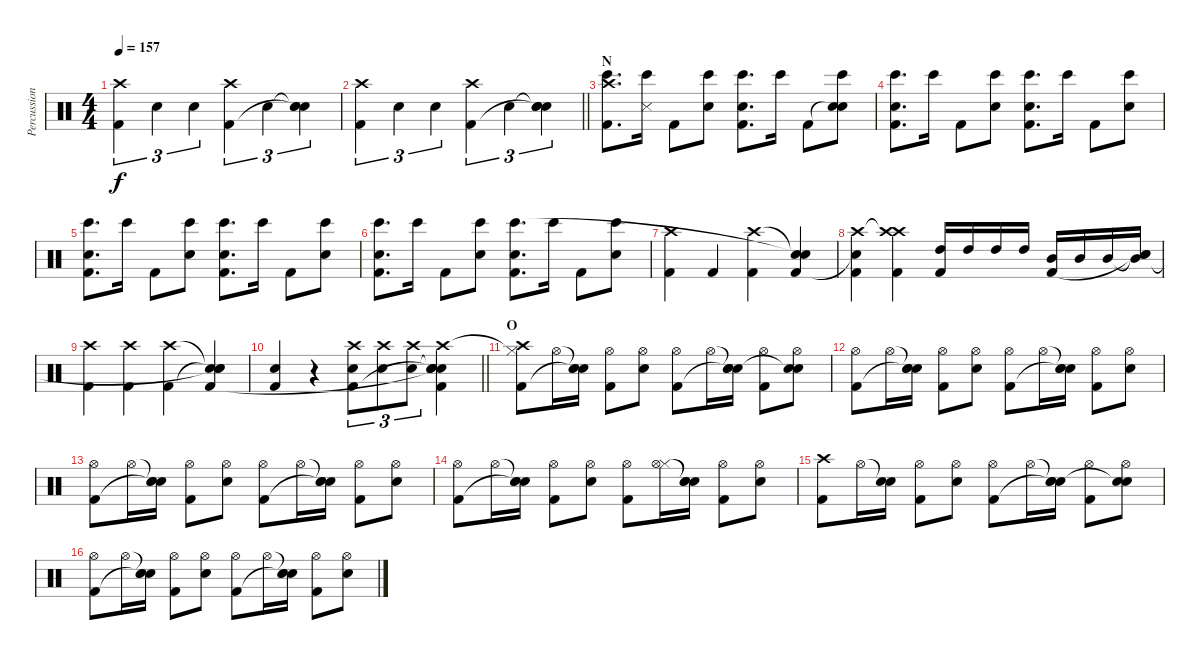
\track ("Percussion" "Percussion") {instrument percussion}
\staff {score}
\articulation defaults
\ts (4 4)
\tempo 157
\clef neutral
\ks c
("Crash high (hit)" "Kick (hit) 2").4{tu (3 2) dy f} "Electric Snare (hit)".4{tu (3 2)} "Electric Snare (hit)".4{tu (3 2)} ("Crash high (hit)" "Kick (hit) 2").4{tu (3 2)} "Electric Snare (hit)".4{tu (3 2)} ("Snare (hit)"{t} "Snare (hit)"{t} "Electric Snare (hit)").4{tu (3 2)} |
\barLineRight lightlight
("Crash high (hit)" "Kick (hit) 2").4{tu (3 2)} "Electric Snare (hit)".4{tu (3 2)} "Electric Snare (hit)".4{tu (3 2)} ("Crash high (hit)" "Kick (hit) 2").4{tu (3 2)} "Electric Snare (hit)".4{tu (3 2)} ("Snare (hit)"{t} "Snare (hit)"{t} "Electric Snare (hit)").4{tu (3 2)} |
\section ("" "N")
("Crash high (hit)" "Kick (hit) 2" "Bongo High (hit)").8{d} ("Snare (side stick) 3" "Bongo High (hit)").16 "Kick (hit) 2".8 ("Electric Snare (hit)" "Bongo High (hit)").8 ("Electric Snare (hit)" "Kick (hit) 2" "Bongo High (hit)").8{d} "Bongo High (hit)".16 "Kick (hit) 2".8 ("Snare (hit)"{t} "Electric Snare (hit)" "Bongo High (hit)").8 |
("Electric Snare (hit)" "Kick (hit) 2" "Bongo High (hit)").8{d} "Bongo High (hit)".16 "Kick (hit) 2".8 ("Electric Snare (hit)" "Bongo High (hit)").8 ("Electric Snare (hit)" "Kick (hit) 2" "Bongo High (hit)").8{d} "Bongo High (hit)".16 "Kick (hit) 2".8 ("Electric Snare (hit)" "Bongo High (hit)").8 |
("Electric Snare (hit)" "Kick (hit) 2" "Bongo High (hit)").8{d} "Bongo High (hit)".16 "Kick (hit) 2".8 ("Electric Snare (hit)" "Bongo High (hit)").8 ("Electric Snare (hit)" "Kick (hit) 2" "Bongo High (hit)").8{d} "Bongo High (hit)".16 "Kick (hit) 2".8 ("Electric Snare (hit)" "Bongo High (hit)").8 |
("Electric Snare (hit)" "Kick (hit) 2" "Bongo High (hit)").8{d} "Bongo High (hit)".16 "Kick (hit) 2".8 ("Electric Snare (hit)" "Bongo High (hit)").8 ("Electric Snare (hit)" "Kick (hit) 2" "Bongo High (hit)").8{d} "Bongo High (hit)".16 "Kick (hit) 2".8 ("Electric Snare (hit)" "Bongo High (hit)").8 |
("Kick (hit) 2" "Crash high (hit)").4 "Kick (hit) 2".4 ("Crash high (hit)" "Kick (hit) 2").4 ("Snare (hit)"{t} "Kick (hit) 2" "Snare (hit)"{t}).4 |
("Crash high (hit)" "Snare (hit)"{t} "Kick (hit) 2").4 ("Crash high (hit)"{t} "Crash high (hit)" "Kick (hit) 2").4 ("High Tom (hit)" "Kick (hit) 2").16 "High Tom (hit)".16 "High Tom (hit)".16 "High Tom (hit)".16 ("Mid Tom (hit)" "Kick (hit) 2").16 "Mid Tom (hit)".16 "Mid Tom (hit)".16 ("Snare (hit)"{t} "Snare (hit)"{t} "Mid Tom (hit)").16 |
("Crash high (hit)" "Kick (hit) 2").4 ("Crash high (hit)" "Kick (hit) 2").4 ("Crash high (hit)" "Kick (hit) 2").4 ("Snare (hit)"{t} "Snare (hit)"{t} "Snare (hit)"{t} "Kick (hit) 2").4 |
\barLineRight lightlight
("Electric Snare (hit)" "Kick (hit) 2").4 r.4 ("Crash high (hit)" "Electric Snare (hit)" "Kick (hit) 2").8{tu (3 2)} ("Crash high (hit)" "Electric Snare (hit)").8{tu (3 2)} ("Crash high (hit)" "Electric Snare (hit)").8{tu (3 2)} ("Crash high (hit)" "Snare (hit)"{t} "Snare (hit)"{t} "Snare (hit)"{t} "Electric Snare (hit)" "Kick (hit) 2").4 |
\section ("" "O")
("Hi-Hat (closed)"{t} "Kick (hit) 2" "Crash high (hit)").8 "Hi-Hat (open)".16 ("Snare (hit)"{t} "Snare (hit)"{t} "Electric Snare (hit)").16 ("Hi-Hat (open)" "Kick (hit) 2").8 ("Hi-Hat (open)" "Electric Snare (hit)").8 ("Hi-Hat (open)" "Kick (hit) 2").8 "Hi-Hat (open)".16 ("Snare (hit)"{t} "Snare (hit)"{t} "Electric Snare (hit)").16 ("Hi-Hat (open)" "Kick (hit) 2").8 ("Hi-Hat (open)" "Electric Snare (hit)" "Snare (hit)"{t}).8 |
("Hi-Hat (open)" "Kick (hit) 2").8 "Hi-Hat (open)".16 ("Snare (hit)"{t} "Snare (hit)"{t} "Electric Snare (hit)").16 ("Hi-Hat (open)" "Kick (hit) 2").8 ("Hi-Hat (open)" "Electric Snare (hit)").8 ("Hi-Hat (open)" "Kick (hit) 2").8 "Hi-Hat (open)".16 ("Snare (hit)"{t} "Snare (hit)"{t} "Electric Snare (hit)").16 ("Hi-Hat (open)" "Kick (hit) 2").8 ("Hi-Hat (open)" "Electric Snare (hit)").8 |
("Hi-Hat (open)" "Kick (hit) 2").8 "Hi-Hat (open)".16 ("Snare (hit)"{t} "Snare (hit)"{t} "Electric Snare (hit)").16 ("Hi-Hat (open)" "Kick (hit) 2").8 ("Hi-Hat (open)" "Electric Snare (hit)").8 ("Hi-Hat (open)" "Kick (hit) 2").8 "Hi-Hat (open)".16 ("Snare (hit)"{t} "Snare (hit)"{t} "Electric Snare (hit)").16 ("Hi-Hat (open)" "Kick (hit) 2").8 ("Hi-Hat (open)" "Electric Snare (hit)").8 |
("Hi-Hat (open)" "Kick (hit) 2").8 "Hi-Hat (open)".16 ("Snare (hit)"{t} "Snare (hit)"{t} "Electric Snare (hit)").16 ("Hi-Hat (open)" "Kick (hit) 2").8 ("Hi-Hat (open)" "Electric Snare (hit)").8 ("Hi-Hat (open)" "Kick (hit) 2").8 ("Hi-Hat (closed)" "Hi-Hat (open)").16 ("Snare (hit)"{t} "Snare (hit)"{t} "Electric Snare (hit)").16 ("Hi-Hat (open)" "Kick (hit) 2").8 ("Hi-Hat (open)" "Electric Snare (hit)").8 |
("Kick (hit) 2" "Crash high (hit)").8 "Hi-Hat (open)".16 ("Snare (hit)"{t} "Electric Snare (hit)").16 ("Hi-Hat (open)" "Kick (hit) 2").8 ("Hi-Hat (open)" "Electric Snare (hit)").8 ("Hi-Hat (open)" "Kick (hit) 2").8 "Hi-Hat (open)".16 ("Snare (hit)"{t} "Snare (hit)"{t} "Electric Snare (hit)").16 ("Hi-Hat (open)" "Kick (hit) 2").8 ("Hi-Hat (open)" "Electric Snare (hit)" "Snare (hit)"{t}).8 |
("Hi-Hat (open)" "Kick (hit) 2").8 "Hi-Hat (open)".16 ("Snare (hit)"{t} "Snare (hit)"{t} "Electric Snare (hit)").16 ("Hi-Hat (open)" "Kick (hit) 2").8 ("Hi-Hat (open)" "Electric Snare (hit)").8 ("Hi-Hat (open)" "Kick (hit) 2").8 "Hi-Hat (open)".16 ("Snare (hit)"{t} "Snare (hit)"{t} "Electric Snare (hit)").16 ("Hi-Hat (open)" "Kick (hit) 2").8 ("Hi-Hat (open)" "Electric Snare (hit)").8
